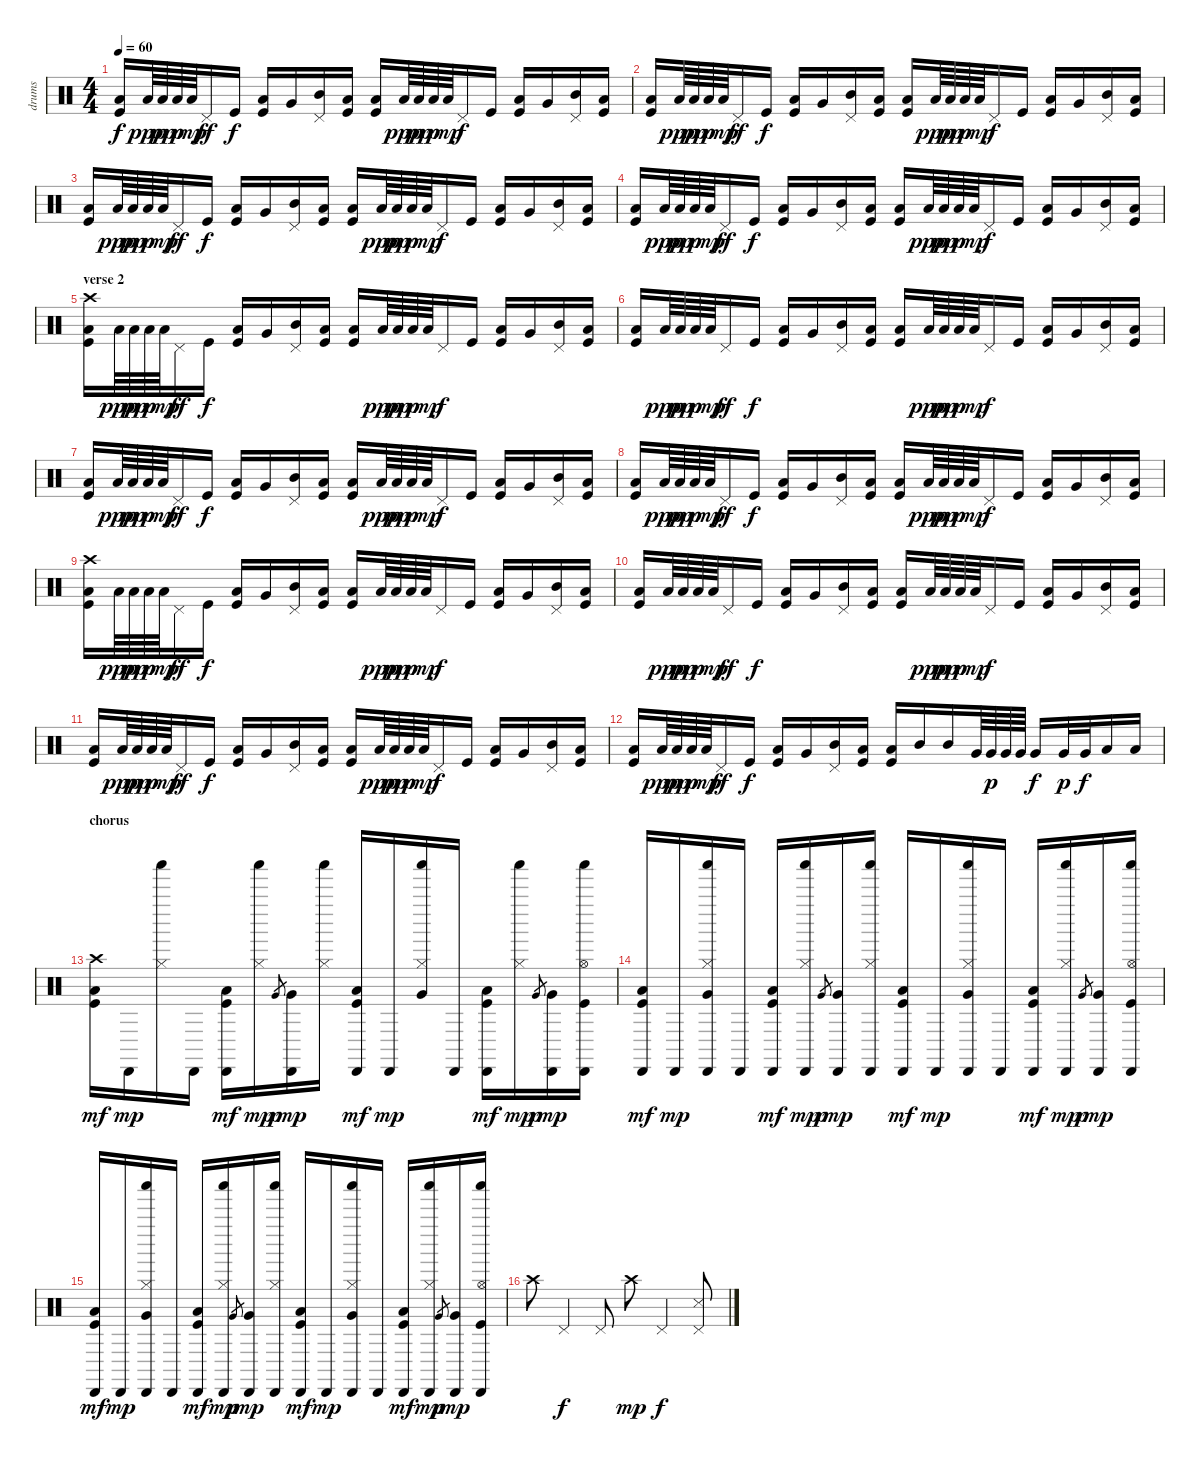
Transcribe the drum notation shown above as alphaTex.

\track ("drums" "drums") {instrument percussion}
\staff {score}
\articulation defaults
\ts (4 4)
\tempo 60
\clef neutral
\ks c
("Low Floor Tom (hit)" "Kick (hit)").16{dy f} "Low Floor Tom (hit)".64{dy ppp} "Low Floor Tom (hit)".64{dy pp} "Low Floor Tom (hit)".64{dy p} "Low Floor Tom (hit)".64{dy mp} "Pedal Hi-Hat (hit)".16{dy ff} "Kick (hit)".16{dy f} ("Low Floor Tom (hit)" "Kick (hit)").16 "Very Low Tom (hit)".16 ("Mid Tom (hit)" "Pedal Hi-Hat (hit)").16 ("Low Floor Tom (hit)" "Kick (hit)").16 ("Low Floor Tom (hit)" "Kick (hit)").16 "Low Floor Tom (hit)".64{dy ppp} "Low Floor Tom (hit)".64{dy pp} "Low Floor Tom (hit)".64{dy p} "Low Floor Tom (hit)".64{dy mp} "Pedal Hi-Hat (hit)".16{dy f} "Kick (hit)".16 ("Low Floor Tom (hit)" "Kick (hit)").16 "Very Low Tom (hit)".16 ("Mid Tom (hit)" "Pedal Hi-Hat (hit)").16 ("Low Floor Tom (hit)" "Kick (hit)").16 |
("Low Floor Tom (hit)" "Kick (hit)").16 "Low Floor Tom (hit)".64{dy ppp} "Low Floor Tom (hit)".64{dy pp} "Low Floor Tom (hit)".64{dy p} "Low Floor Tom (hit)".64{dy mp} "Pedal Hi-Hat (hit)".16{dy ff} "Kick (hit)".16{dy f} ("Low Floor Tom (hit)" "Kick (hit)").16 "Very Low Tom (hit)".16 ("Mid Tom (hit)" "Pedal Hi-Hat (hit)").16 ("Low Floor Tom (hit)" "Kick (hit)").16 ("Low Floor Tom (hit)" "Kick (hit)").16 "Low Floor Tom (hit)".64{dy ppp} "Low Floor Tom (hit)".64{dy pp} "Low Floor Tom (hit)".64{dy p} "Low Floor Tom (hit)".64{dy mp} "Pedal Hi-Hat (hit)".16{dy f} "Kick (hit)".16 ("Low Floor Tom (hit)" "Kick (hit)").16 "Very Low Tom (hit)".16 ("Mid Tom (hit)" "Pedal Hi-Hat (hit)").16 ("Low Floor Tom (hit)" "Kick (hit)").16 |
("Low Floor Tom (hit)" "Kick (hit)").16 "Low Floor Tom (hit)".64{dy ppp} "Low Floor Tom (hit)".64{dy pp} "Low Floor Tom (hit)".64{dy p} "Low Floor Tom (hit)".64{dy mp} "Pedal Hi-Hat (hit)".16{dy ff} "Kick (hit)".16{dy f} ("Low Floor Tom (hit)" "Kick (hit)").16 "Very Low Tom (hit)".16 ("Mid Tom (hit)" "Pedal Hi-Hat (hit)").16 ("Low Floor Tom (hit)" "Kick (hit)").16 ("Low Floor Tom (hit)" "Kick (hit)").16 "Low Floor Tom (hit)".64{dy ppp} "Low Floor Tom (hit)".64{dy pp} "Low Floor Tom (hit)".64{dy p} "Low Floor Tom (hit)".64{dy mp} "Pedal Hi-Hat (hit)".16{dy f} "Kick (hit)".16 ("Low Floor Tom (hit)" "Kick (hit)").16 "Very Low Tom (hit)".16 ("Mid Tom (hit)" "Pedal Hi-Hat (hit)").16 ("Low Floor Tom (hit)" "Kick (hit)").16 |
("Low Floor Tom (hit)" "Kick (hit)").16 "Low Floor Tom (hit)".64{dy ppp} "Low Floor Tom (hit)".64{dy pp} "Low Floor Tom (hit)".64{dy p} "Low Floor Tom (hit)".64{dy mp} "Pedal Hi-Hat (hit)".16{dy ff} "Kick (hit)".16{dy f} ("Low Floor Tom (hit)" "Kick (hit)").16 "Very Low Tom (hit)".16 ("Mid Tom (hit)" "Pedal Hi-Hat (hit)").16 ("Low Floor Tom (hit)" "Kick (hit)").16 ("Low Floor Tom (hit)" "Kick (hit)").16 "Low Floor Tom (hit)".64{dy ppp} "Low Floor Tom (hit)".64{dy pp} "Low Floor Tom (hit)".64{dy p} "Low Floor Tom (hit)".64{dy mp} "Pedal Hi-Hat (hit)".16{dy f} "Kick (hit)".16 ("Low Floor Tom (hit)" "Kick (hit)").16 "Very Low Tom (hit)".16 ("Mid Tom (hit)" "Pedal Hi-Hat (hit)").16 ("Low Floor Tom (hit)" "Kick (hit)").16 |
\section ("" "verse 2")
("Crash high (hit)" "Low Floor Tom (hit)" "Kick (hit)").16 "Low Floor Tom (hit)".64{dy ppp} "Low Floor Tom (hit)".64{dy pp} "Low Floor Tom (hit)".64{dy p} "Low Floor Tom (hit)".64{dy mp} "Pedal Hi-Hat (hit)".16{dy ff} "Kick (hit)".16{dy f} ("Low Floor Tom (hit)" "Kick (hit)").16 "Very Low Tom (hit)".16 ("Mid Tom (hit)" "Pedal Hi-Hat (hit)").16 ("Low Floor Tom (hit)" "Kick (hit)").16 ("Low Floor Tom (hit)" "Kick (hit)").16 "Low Floor Tom (hit)".64{dy ppp} "Low Floor Tom (hit)".64{dy pp} "Low Floor Tom (hit)".64{dy p} "Low Floor Tom (hit)".64{dy mp} "Pedal Hi-Hat (hit)".16{dy f} "Kick (hit)".16 ("Low Floor Tom (hit)" "Kick (hit)").16 "Very Low Tom (hit)".16 ("Mid Tom (hit)" "Pedal Hi-Hat (hit)").16 ("Low Floor Tom (hit)" "Kick (hit)").16 |
("Low Floor Tom (hit)" "Kick (hit)").16 "Low Floor Tom (hit)".64{dy ppp} "Low Floor Tom (hit)".64{dy pp} "Low Floor Tom (hit)".64{dy p} "Low Floor Tom (hit)".64{dy mp} "Pedal Hi-Hat (hit)".16{dy ff} "Kick (hit)".16{dy f} ("Low Floor Tom (hit)" "Kick (hit)").16 "Very Low Tom (hit)".16 ("Mid Tom (hit)" "Pedal Hi-Hat (hit)").16 ("Low Floor Tom (hit)" "Kick (hit)").16 ("Low Floor Tom (hit)" "Kick (hit)").16 "Low Floor Tom (hit)".64{dy ppp} "Low Floor Tom (hit)".64{dy pp} "Low Floor Tom (hit)".64{dy p} "Low Floor Tom (hit)".64{dy mp} "Pedal Hi-Hat (hit)".16{dy f} "Kick (hit)".16 ("Low Floor Tom (hit)" "Kick (hit)").16 "Very Low Tom (hit)".16 ("Mid Tom (hit)" "Pedal Hi-Hat (hit)").16 ("Low Floor Tom (hit)" "Kick (hit)").16 |
("Low Floor Tom (hit)" "Kick (hit)").16 "Low Floor Tom (hit)".64{dy ppp} "Low Floor Tom (hit)".64{dy pp} "Low Floor Tom (hit)".64{dy p} "Low Floor Tom (hit)".64{dy mp} "Pedal Hi-Hat (hit)".16{dy ff} "Kick (hit)".16{dy f} ("Low Floor Tom (hit)" "Kick (hit)").16 "Very Low Tom (hit)".16 ("Mid Tom (hit)" "Pedal Hi-Hat (hit)").16 ("Low Floor Tom (hit)" "Kick (hit)").16 ("Low Floor Tom (hit)" "Kick (hit)").16 "Low Floor Tom (hit)".64{dy ppp} "Low Floor Tom (hit)".64{dy pp} "Low Floor Tom (hit)".64{dy p} "Low Floor Tom (hit)".64{dy mp} "Pedal Hi-Hat (hit)".16{dy f} "Kick (hit)".16 ("Low Floor Tom (hit)" "Kick (hit)").16 "Very Low Tom (hit)".16 ("Mid Tom (hit)" "Pedal Hi-Hat (hit)").16 ("Low Floor Tom (hit)" "Kick (hit)").16 |
("Low Floor Tom (hit)" "Kick (hit)").16 "Low Floor Tom (hit)".64{dy ppp} "Low Floor Tom (hit)".64{dy pp} "Low Floor Tom (hit)".64{dy p} "Low Floor Tom (hit)".64{dy mp} "Pedal Hi-Hat (hit)".16{dy ff} "Kick (hit)".16{dy f} ("Low Floor Tom (hit)" "Kick (hit)").16 "Very Low Tom (hit)".16 ("Mid Tom (hit)" "Pedal Hi-Hat (hit)").16 ("Low Floor Tom (hit)" "Kick (hit)").16 ("Low Floor Tom (hit)" "Kick (hit)").16 "Low Floor Tom (hit)".64{dy ppp} "Low Floor Tom (hit)".64{dy pp} "Low Floor Tom (hit)".64{dy p} "Low Floor Tom (hit)".64{dy mp} "Pedal Hi-Hat (hit)".16{dy f} "Kick (hit)".16 ("Low Floor Tom (hit)" "Kick (hit)").16 "Very Low Tom (hit)".16 ("Mid Tom (hit)" "Pedal Hi-Hat (hit)").16 ("Low Floor Tom (hit)" "Kick (hit)").16 |
("Crash high (hit)" "Low Floor Tom (hit)" "Kick (hit)").16 "Low Floor Tom (hit)".64{dy ppp} "Low Floor Tom (hit)".64{dy pp} "Low Floor Tom (hit)".64{dy p} "Low Floor Tom (hit)".64{dy mp} "Pedal Hi-Hat (hit)".16{dy ff} "Kick (hit)".16{dy f} ("Low Floor Tom (hit)" "Kick (hit)").16 "Very Low Tom (hit)".16 ("Mid Tom (hit)" "Pedal Hi-Hat (hit)").16 ("Low Floor Tom (hit)" "Kick (hit)").16 ("Low Floor Tom (hit)" "Kick (hit)").16 "Low Floor Tom (hit)".64{dy ppp} "Low Floor Tom (hit)".64{dy pp} "Low Floor Tom (hit)".64{dy p} "Low Floor Tom (hit)".64{dy mp} "Pedal Hi-Hat (hit)".16{dy f} "Kick (hit)".16 ("Low Floor Tom (hit)" "Kick (hit)").16 "Very Low Tom (hit)".16 ("Mid Tom (hit)" "Pedal Hi-Hat (hit)").16 ("Low Floor Tom (hit)" "Kick (hit)").16 |
("Low Floor Tom (hit)" "Kick (hit)").16 "Low Floor Tom (hit)".64{dy ppp} "Low Floor Tom (hit)".64{dy pp} "Low Floor Tom (hit)".64{dy p} "Low Floor Tom (hit)".64{dy mp} "Pedal Hi-Hat (hit)".16{dy ff} "Kick (hit)".16{dy f} ("Low Floor Tom (hit)" "Kick (hit)").16 "Very Low Tom (hit)".16 ("Mid Tom (hit)" "Pedal Hi-Hat (hit)").16 ("Low Floor Tom (hit)" "Kick (hit)").16 ("Low Floor Tom (hit)" "Kick (hit)").16 "Low Floor Tom (hit)".64{dy ppp} "Low Floor Tom (hit)".64{dy pp} "Low Floor Tom (hit)".64{dy p} "Low Floor Tom (hit)".64{dy mp} "Pedal Hi-Hat (hit)".16{dy f} "Kick (hit)".16 ("Low Floor Tom (hit)" "Kick (hit)").16 "Very Low Tom (hit)".16 ("Mid Tom (hit)" "Pedal Hi-Hat (hit)").16 ("Low Floor Tom (hit)" "Kick (hit)").16 |
("Low Floor Tom (hit)" "Kick (hit)").16 "Low Floor Tom (hit)".64{dy ppp} "Low Floor Tom (hit)".64{dy pp} "Low Floor Tom (hit)".64{dy p} "Low Floor Tom (hit)".64{dy mp} "Pedal Hi-Hat (hit)".16{dy ff} "Kick (hit)".16{dy f} ("Low Floor Tom (hit)" "Kick (hit)").16 "Very Low Tom (hit)".16 ("Mid Tom (hit)" "Pedal Hi-Hat (hit)").16 ("Low Floor Tom (hit)" "Kick (hit)").16 ("Low Floor Tom (hit)" "Kick (hit)").16 "Low Floor Tom (hit)".64{dy ppp} "Low Floor Tom (hit)".64{dy pp} "Low Floor Tom (hit)".64{dy p} "Low Floor Tom (hit)".64{dy mp} "Pedal Hi-Hat (hit)".16{dy f} "Kick (hit)".16 ("Low Floor Tom (hit)" "Kick (hit)").16 "Very Low Tom (hit)".16 ("Mid Tom (hit)" "Pedal Hi-Hat (hit)").16 ("Low Floor Tom (hit)" "Kick (hit)").16 |
("Low Floor Tom (hit)" "Kick (hit)").16 "Low Floor Tom (hit)".64{dy ppp} "Low Floor Tom (hit)".64{dy pp} "Low Floor Tom (hit)".64{dy p} "Low Floor Tom (hit)".64{dy mp} "Pedal Hi-Hat (hit)".16{dy ff} "Kick (hit)".16{dy f} ("Low Floor Tom (hit)" "Kick (hit)").16 "Very Low Tom (hit)".16 ("Mid Tom (hit)" "Pedal Hi-Hat (hit)").16 ("Low Floor Tom (hit)" "Kick (hit)").16 ("Low Floor Tom (hit)" "Kick (hit)").16 "Mid Tom (hit)".16 "Mid Tom (hit)".16 "Very Low Tom (hit)".64 "Very Low Tom (hit)".64{dy p} "Very Low Tom (hit)".64 "Very Low Tom (hit)".64 "Very Low Tom (hit)".16{dy f} "Very Low Tom (hit)".32{dy p} "Very Low Tom (hit)".32{dy f} "Low Floor Tom (hit)".16 "Low Floor Tom (hit)".16 |
\section ("" "chorus")
("Crash high (hit)" "Low Floor Tom (hit)" "Kick (hit)").16{dy mf} "Cabasa (hit)".16{dy mp} ("Shaker (hit)" "Hi-Hat (closed)").16 "Cabasa (hit)".16 ("Cabasa (hit)" "Low Floor Tom (hit)" "Kick (hit)").16{dy mf} ("Shaker (hit)" "Hi-Hat (closed)").16{dy mp} "Very Low Tom (hit)".8{gr dy p} ("Cabasa (hit)" "Very Low Tom (hit)").16{dy mp} ("Shaker (hit)" "Hi-Hat (closed)").16 ("Cabasa (hit)" "Low Floor Tom (hit)" "Kick (hit)").16{dy mf} "Cabasa (hit)".16{dy mp} ("Shaker (hit)" "Very Low Tom (hit)" "Hi-Hat (closed)").16 "Cabasa (hit)".16 ("Cabasa (hit)" "Low Floor Tom (hit)" "Kick (hit)").16{dy mf} ("Shaker (hit)" "Hi-Hat (closed)").16{dy mp} "Very Low Tom (hit)".8{gr dy p} ("Cabasa (hit)" "Very Low Tom (hit)").16{dy mp} ("Cabasa (hit)" "Shaker (hit)" "Hi-Hat (open)" "Kick (hit)").16 |
("Cabasa (hit)" "Low Floor Tom (hit)" "Kick (hit)").16{dy mf} "Cabasa (hit)".16{dy mp} ("Cabasa (hit)" "Shaker (hit)" "Very Low Tom (hit)" "Hi-Hat (closed)").16 "Cabasa (hit)".16 ("Cabasa (hit)" "Low Floor Tom (hit)" "Kick (hit)").16{dy mf} ("Cabasa (hit)" "Shaker (hit)" "Hi-Hat (closed)").16{dy mp} "Very Low Tom (hit)".8{gr dy p} ("Cabasa (hit)" "Very Low Tom (hit)").16{dy mp} ("Cabasa (hit)" "Shaker (hit)" "Hi-Hat (closed)").16 ("Cabasa (hit)" "Low Floor Tom (hit)" "Kick (hit)").16{dy mf} "Cabasa (hit)".16{dy mp} ("Cabasa (hit)" "Shaker (hit)" "Very Low Tom (hit)" "Hi-Hat (closed)").16 "Cabasa (hit)".16 ("Cabasa (hit)" "Low Floor Tom (hit)" "Kick (hit)").16{dy mf} ("Cabasa (hit)" "Shaker (hit)" "Hi-Hat (closed)").16{dy mp} "Very Low Tom (hit)".8{gr dy p} ("Cabasa (hit)" "Very Low Tom (hit)").16{dy mp} ("Cabasa (hit)" "Shaker (hit)" "Hi-Hat (open)" "Kick (hit)").16 |
("Cabasa (hit)" "Low Floor Tom (hit)" "Kick (hit)").16{dy mf} "Cabasa (hit)".16{dy mp} ("Cabasa (hit)" "Shaker (hit)" "Very Low Tom (hit)" "Hi-Hat (closed)").16 "Cabasa (hit)".16 ("Cabasa (hit)" "Low Floor Tom (hit)" "Kick (hit)").16{dy mf} ("Cabasa (hit)" "Shaker (hit)" "Hi-Hat (closed)").16{dy mp} "Very Low Tom (hit)".8{gr dy p} ("Cabasa (hit)" "Very Low Tom (hit)").16{dy mp} ("Cabasa (hit)" "Shaker (hit)" "Hi-Hat (closed)").16 ("Cabasa (hit)" "Low Floor Tom (hit)" "Kick (hit)").16{dy mf} "Cabasa (hit)".16{dy mp} ("Cabasa (hit)" "Shaker (hit)" "Very Low Tom (hit)" "Hi-Hat (closed)").16 "Cabasa (hit)".16 ("Cabasa (hit)" "Low Floor Tom (hit)" "Kick (hit)").16{dy mf} ("Cabasa (hit)" "Shaker (hit)" "Hi-Hat (closed)").16{dy mp} "Very Low Tom (hit)".8{gr dy p} ("Cabasa (hit)" "Very Low Tom (hit)").16{dy mp} ("Cabasa (hit)" "Shaker (hit)" "Hi-Hat (open)" "Kick (hit)").16 |
"Crash high (hit)".8 "Pedal Hi-Hat (hit)".4{dy f} "Pedal Hi-Hat (hit)".8 "Crash high (hit)".8{dy mp} "Pedal Hi-Hat (hit)".4{dy f} ("Snare (side stick) 3" "Pedal Hi-Hat (hit)").8
